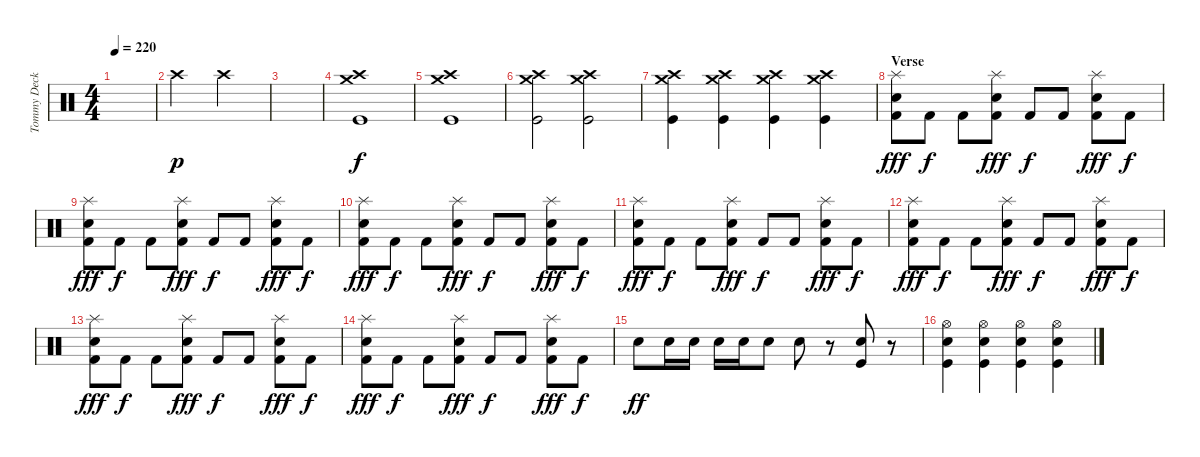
\track ("Tommy Decker" "Tommy Deck") {instrument percussion}
\staff {score}
\articulation defaults
\ts (4 4)
\tempo 220
\clef neutral
\ks c
|
"Crash high (hit)".2{dy p} "Crash high (hit)".2 |
|
("Crash high (hit)" "Crash medium (hit)" "Kick (hit)").1{dy f} |
("Crash high (hit)" "Crash medium (hit)" "Kick (hit)").1 |
("Crash high (hit)" "Crash medium (hit)" "Kick (hit)").2 ("Crash high (hit)" "Crash medium (hit)" "Kick (hit)").2 |
("Crash high (hit)" "Crash medium (hit)" "Kick (hit)").4 ("Crash high (hit)" "Crash medium (hit)" "Kick (hit)").4 ("Crash high (hit)" "Crash medium (hit)" "Kick (hit)").4 ("Crash high (hit)" "Crash medium (hit)" "Kick (hit)").4 |
\section ("" "Verse")
("Splash (hit)" "Electric Snare (hit)" "Kick (hit) 2").8{dy fff} "Kick (hit) 2".8{dy f} "Kick (hit) 2".8 ("Splash (hit)" "Electric Snare (hit)" "Kick (hit) 2").8{dy fff} "Kick (hit) 2".8{dy f} "Kick (hit) 2".8 ("Splash (hit)" "Electric Snare (hit)" "Kick (hit) 2").8{dy fff} "Kick (hit) 2".8{dy f} |
("Splash (hit)" "Electric Snare (hit)" "Kick (hit) 2").8{dy fff} "Kick (hit) 2".8{dy f} "Kick (hit) 2".8 ("Splash (hit)" "Electric Snare (hit)" "Kick (hit) 2").8{dy fff} "Kick (hit) 2".8{dy f} "Kick (hit) 2".8 ("Splash (hit)" "Electric Snare (hit)" "Kick (hit) 2").8{dy fff} "Kick (hit) 2".8{dy f} |
("Splash (hit)" "Electric Snare (hit)" "Kick (hit) 2").8{dy fff} "Kick (hit) 2".8{dy f} "Kick (hit) 2".8 ("Splash (hit)" "Electric Snare (hit)" "Kick (hit) 2").8{dy fff} "Kick (hit) 2".8{dy f} "Kick (hit) 2".8 ("Splash (hit)" "Electric Snare (hit)" "Kick (hit) 2").8{dy fff} "Kick (hit) 2".8{dy f} |
("Splash (hit)" "Electric Snare (hit)" "Kick (hit) 2").8{dy fff} "Kick (hit) 2".8{dy f} "Kick (hit) 2".8 ("Splash (hit)" "Electric Snare (hit)" "Kick (hit) 2").8{dy fff} "Kick (hit) 2".8{dy f} "Kick (hit) 2".8 ("Splash (hit)" "Electric Snare (hit)" "Kick (hit) 2").8{dy fff} "Kick (hit) 2".8{dy f} |
("Splash (hit)" "Electric Snare (hit)" "Kick (hit) 2").8{dy fff} "Kick (hit) 2".8{dy f} "Kick (hit) 2".8 ("Splash (hit)" "Electric Snare (hit)" "Kick (hit) 2").8{dy fff} "Kick (hit) 2".8{dy f} "Kick (hit) 2".8 ("Splash (hit)" "Electric Snare (hit)" "Kick (hit) 2").8{dy fff} "Kick (hit) 2".8{dy f} |
("Splash (hit)" "Electric Snare (hit)" "Kick (hit) 2").8{dy fff} "Kick (hit) 2".8{dy f} "Kick (hit) 2".8 ("Splash (hit)" "Electric Snare (hit)" "Kick (hit) 2").8{dy fff} "Kick (hit) 2".8{dy f} "Kick (hit) 2".8 ("Splash (hit)" "Electric Snare (hit)" "Kick (hit) 2").8{dy fff} "Kick (hit) 2".8{dy f} |
("Splash (hit)" "Electric Snare (hit)" "Kick (hit) 2").8{dy fff} "Kick (hit) 2".8{dy f} "Kick (hit) 2".8 ("Splash (hit)" "Electric Snare (hit)" "Kick (hit) 2").8{dy fff} "Kick (hit) 2".8{dy f} "Kick (hit) 2".8 ("Splash (hit)" "Electric Snare (hit)" "Kick (hit) 2").8{dy fff} "Kick (hit) 2".8{dy f} |
"Electric Snare (hit)".8{dy ff} "Electric Snare (hit)".16 "Electric Snare (hit)".16 "Electric Snare (hit)".16 "Electric Snare (hit)".16 "Electric Snare (hit)".8 "Electric Snare (hit)".8 r.8 ("Electric Snare (hit)" "Kick (hit)").8 r.8 |
("Hi-Hat (open)" "Electric Snare (hit)" "Kick (hit)").4 ("Hi-Hat (open)" "Electric Snare (hit)" "Kick (hit)").4 ("Hi-Hat (open)" "Electric Snare (hit)" "Kick (hit)").4 ("Hi-Hat (open)" "Electric Snare (hit)" "Kick (hit)").4
